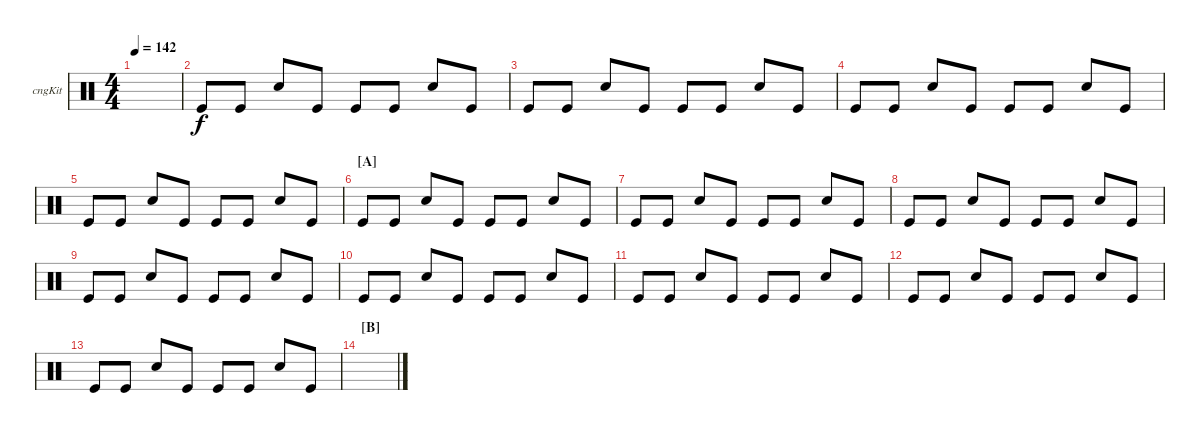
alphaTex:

\defaultSystemsLayout 4
\bracketExtendMode groupsimilarinstruments
\firstSystemTrackNameOrientation horizontal
\otherSystemsTrackNameOrientation horizontal
\track ("Congas" "cngKit") {instrument percussion}
\staff {score}
\articulation defaults
\ts (4 4)
\tempo 142
\clef neutral
\ks c
|
"Kick (hit)".8 "Kick (hit)".8 "Snare (hit) 2".8 "Kick (hit)".8 "Kick (hit)".8 "Kick (hit)".8 "Snare (hit) 2".8 "Kick (hit)".8 |
"Kick (hit)".8 "Kick (hit)".8 "Snare (hit) 2".8 "Kick (hit)".8 "Kick (hit)".8 "Kick (hit)".8 "Snare (hit) 2".8 "Kick (hit)".8 |
"Kick (hit)".8 "Kick (hit)".8 "Snare (hit) 2".8 "Kick (hit)".8 "Kick (hit)".8 "Kick (hit)".8 "Snare (hit) 2".8 "Kick (hit)".8 |
"Kick (hit)".8 "Kick (hit)".8 "Snare (hit) 2".8 "Kick (hit)".8 "Kick (hit)".8 "Kick (hit)".8 "Snare (hit) 2".8 "Kick (hit)".8 |
\section ("A" "")
"Kick (hit)".8 "Kick (hit)".8 "Snare (hit) 2".8 "Kick (hit)".8 "Kick (hit)".8 "Kick (hit)".8 "Snare (hit) 2".8 "Kick (hit)".8 |
"Kick (hit)".8 "Kick (hit)".8 "Snare (hit) 2".8 "Kick (hit)".8 "Kick (hit)".8 "Kick (hit)".8 "Snare (hit) 2".8 "Kick (hit)".8 |
"Kick (hit)".8 "Kick (hit)".8 "Snare (hit) 2".8 "Kick (hit)".8 "Kick (hit)".8 "Kick (hit)".8 "Snare (hit) 2".8 "Kick (hit)".8 |
"Kick (hit)".8 "Kick (hit)".8 "Snare (hit) 2".8 "Kick (hit)".8 "Kick (hit)".8 "Kick (hit)".8 "Snare (hit) 2".8 "Kick (hit)".8 |
"Kick (hit)".8 "Kick (hit)".8 "Snare (hit) 2".8 "Kick (hit)".8 "Kick (hit)".8 "Kick (hit)".8 "Snare (hit) 2".8 "Kick (hit)".8 |
"Kick (hit)".8 "Kick (hit)".8 "Snare (hit) 2".8 "Kick (hit)".8 "Kick (hit)".8 "Kick (hit)".8 "Snare (hit) 2".8 "Kick (hit)".8 |
"Kick (hit)".8 "Kick (hit)".8 "Snare (hit) 2".8 "Kick (hit)".8 "Kick (hit)".8 "Kick (hit)".8 "Snare (hit) 2".8 "Kick (hit)".8 |
"Kick (hit)".8 "Kick (hit)".8 "Snare (hit) 2".8 "Kick (hit)".8 "Kick (hit)".8 "Kick (hit)".8 "Snare (hit) 2".8 "Kick (hit)".8 |
\section ("B" "")
